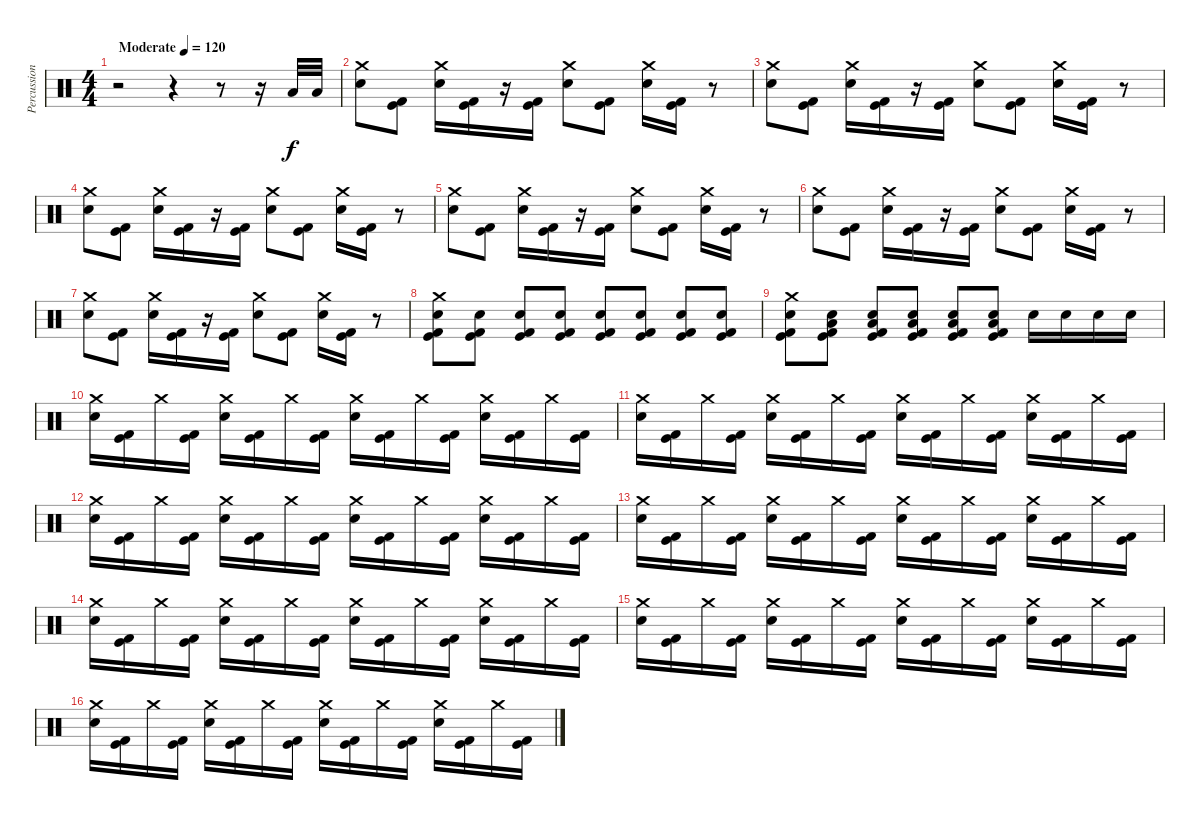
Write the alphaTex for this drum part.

\track ("Percussion" "Percussion") {instrument percussion}
\staff {score}
\articulation defaults
\ts (4 4)
\tempo (120 "Moderate")
\clef neutral
\ks c
r.2{dy f} r.4 r.8 r.16 "Low Tom (hit)".32 "Low Tom (hit)".32 |
("Crash medium (hit)" "Electric Snare (hit)").8 ("Kick (hit)" "Kick (hit) 2").8 ("Crash medium (hit)" "Electric Snare (hit)").16 ("Kick (hit)" "Kick (hit) 2").16 r.16 ("Kick (hit)" "Kick (hit) 2").16 ("Crash medium (hit)" "Electric Snare (hit)").8 ("Kick (hit)" "Kick (hit) 2").8 ("Crash medium (hit)" "Electric Snare (hit)").16 ("Kick (hit)" "Kick (hit) 2").16 r.8 |
("Crash medium (hit)" "Electric Snare (hit)").8 ("Kick (hit)" "Kick (hit) 2").8 ("Crash medium (hit)" "Electric Snare (hit)").16 ("Kick (hit)" "Kick (hit) 2").16 r.16 ("Kick (hit)" "Kick (hit) 2").16 ("Crash medium (hit)" "Electric Snare (hit)").8 ("Kick (hit)" "Kick (hit) 2").8 ("Crash medium (hit)" "Electric Snare (hit)").16 ("Kick (hit)" "Kick (hit) 2").16 r.8 |
("Crash medium (hit)" "Electric Snare (hit)").8 ("Kick (hit)" "Kick (hit) 2").8 ("Crash medium (hit)" "Electric Snare (hit)").16 ("Kick (hit)" "Kick (hit) 2").16 r.16 ("Kick (hit)" "Kick (hit) 2").16 ("Crash medium (hit)" "Electric Snare (hit)").8 ("Kick (hit)" "Kick (hit) 2").8 ("Crash medium (hit)" "Electric Snare (hit)").16 ("Kick (hit)" "Kick (hit) 2").16 r.8 |
("Crash medium (hit)" "Electric Snare (hit)").8 ("Kick (hit)" "Kick (hit) 2").8 ("Crash medium (hit)" "Electric Snare (hit)").16 ("Kick (hit)" "Kick (hit) 2").16 r.16 ("Kick (hit)" "Kick (hit) 2").16 ("Crash medium (hit)" "Electric Snare (hit)").8 ("Kick (hit)" "Kick (hit) 2").8 ("Crash medium (hit)" "Electric Snare (hit)").16 ("Kick (hit)" "Kick (hit) 2").16 r.8 |
("Crash medium (hit)" "Electric Snare (hit)").8 ("Kick (hit)" "Kick (hit) 2").8 ("Crash medium (hit)" "Electric Snare (hit)").16 ("Kick (hit)" "Kick (hit) 2").16 r.16 ("Kick (hit)" "Kick (hit) 2").16 ("Crash medium (hit)" "Electric Snare (hit)").8 ("Kick (hit)" "Kick (hit) 2").8 ("Crash medium (hit)" "Electric Snare (hit)").16 ("Kick (hit)" "Kick (hit) 2").16 r.8 |
("Crash medium (hit)" "Electric Snare (hit)").8 ("Kick (hit)" "Kick (hit) 2").8 ("Crash medium (hit)" "Electric Snare (hit)").16 ("Kick (hit)" "Kick (hit) 2").16 r.16 ("Kick (hit)" "Kick (hit) 2").16 ("Crash medium (hit)" "Electric Snare (hit)").8 ("Kick (hit)" "Kick (hit) 2").8 ("Crash medium (hit)" "Electric Snare (hit)").16 ("Kick (hit)" "Kick (hit) 2").16 r.8 |
("Crash medium (hit)" "Electric Snare (hit)" "Kick (hit)" "Kick (hit) 2").8 ("Electric Snare (hit)" "Kick (hit)" "Kick (hit) 2").8 ("Electric Snare (hit)" "Kick (hit)" "Kick (hit) 2").8 ("Electric Snare (hit)" "Kick (hit)" "Kick (hit) 2").8 ("Electric Snare (hit)" "Kick (hit)" "Kick (hit) 2").8 ("Electric Snare (hit)" "Kick (hit)" "Kick (hit) 2").8 ("Electric Snare (hit)" "Kick (hit)" "Kick (hit) 2").8 ("Electric Snare (hit)" "Kick (hit)" "Kick (hit) 2").8 |
("Crash medium (hit)" "Electric Snare (hit)" "Kick (hit)" "Kick (hit) 2").8 ("Electric Snare (hit)" "Low Tom (hit)" "Kick (hit)" "Kick (hit) 2").8 ("Electric Snare (hit)" "Low Tom (hit)" "Kick (hit)" "Kick (hit) 2").8 ("Electric Snare (hit)" "Low Tom (hit)" "Kick (hit)" "Kick (hit) 2").8 ("Electric Snare (hit)" "Low Tom (hit)" "Kick (hit)" "Kick (hit) 2").8 ("Electric Snare (hit)" "Low Tom (hit)" "Kick (hit)" "Kick (hit) 2").8 "Electric Snare (hit)".16 "Electric Snare (hit)".16 "Electric Snare (hit)".16 "Electric Snare (hit)".16 |
("Crash medium (hit)" "Electric Snare (hit)").16 ("Kick (hit)" "Kick (hit) 2").16 "Crash medium (hit)".16 ("Kick (hit)" "Kick (hit) 2").16 ("Crash medium (hit)" "Electric Snare (hit)").16 ("Kick (hit)" "Kick (hit) 2").16 "Crash medium (hit)".16 ("Kick (hit)" "Kick (hit) 2").16 ("Crash medium (hit)" "Electric Snare (hit)").16 ("Kick (hit)" "Kick (hit) 2").16 "Crash medium (hit)".16 ("Kick (hit)" "Kick (hit) 2").16 ("Crash medium (hit)" "Electric Snare (hit)").16 ("Kick (hit)" "Kick (hit) 2").16 "Crash medium (hit)".16 ("Kick (hit)" "Kick (hit) 2").16 |
("Crash medium (hit)" "Electric Snare (hit)").16 ("Kick (hit)" "Kick (hit) 2").16 "Crash medium (hit)".16 ("Kick (hit)" "Kick (hit) 2").16 ("Crash medium (hit)" "Electric Snare (hit)").16 ("Kick (hit)" "Kick (hit) 2").16 "Crash medium (hit)".16 ("Kick (hit)" "Kick (hit) 2").16 ("Crash medium (hit)" "Electric Snare (hit)").16 ("Kick (hit)" "Kick (hit) 2").16 "Crash medium (hit)".16 ("Kick (hit)" "Kick (hit) 2").16 ("Crash medium (hit)" "Electric Snare (hit)").16 ("Kick (hit)" "Kick (hit) 2").16 "Crash medium (hit)".16 ("Kick (hit)" "Kick (hit) 2").16 |
("Crash medium (hit)" "Electric Snare (hit)").16 ("Kick (hit)" "Kick (hit) 2").16 "Crash medium (hit)".16 ("Kick (hit)" "Kick (hit) 2").16 ("Crash medium (hit)" "Electric Snare (hit)").16 ("Kick (hit)" "Kick (hit) 2").16 "Crash medium (hit)".16 ("Kick (hit)" "Kick (hit) 2").16 ("Crash medium (hit)" "Electric Snare (hit)").16 ("Kick (hit)" "Kick (hit) 2").16 "Crash medium (hit)".16 ("Kick (hit)" "Kick (hit) 2").16 ("Crash medium (hit)" "Electric Snare (hit)").16 ("Kick (hit)" "Kick (hit) 2").16 "Crash medium (hit)".16 ("Kick (hit)" "Kick (hit) 2").16 |
("Crash medium (hit)" "Electric Snare (hit)").16 ("Kick (hit)" "Kick (hit) 2").16 "Crash medium (hit)".16 ("Kick (hit)" "Kick (hit) 2").16 ("Crash medium (hit)" "Electric Snare (hit)").16 ("Kick (hit)" "Kick (hit) 2").16 "Crash medium (hit)".16 ("Kick (hit)" "Kick (hit) 2").16 ("Crash medium (hit)" "Electric Snare (hit)").16 ("Kick (hit)" "Kick (hit) 2").16 "Crash medium (hit)".16 ("Kick (hit)" "Kick (hit) 2").16 ("Crash medium (hit)" "Electric Snare (hit)").16 ("Kick (hit)" "Kick (hit) 2").16 "Crash medium (hit)".16 ("Kick (hit)" "Kick (hit) 2").16 |
("Crash medium (hit)" "Electric Snare (hit)").16 ("Kick (hit)" "Kick (hit) 2").16 "Crash medium (hit)".16 ("Kick (hit)" "Kick (hit) 2").16 ("Crash medium (hit)" "Electric Snare (hit)").16 ("Kick (hit)" "Kick (hit) 2").16 "Crash medium (hit)".16 ("Kick (hit)" "Kick (hit) 2").16 ("Crash medium (hit)" "Electric Snare (hit)").16 ("Kick (hit)" "Kick (hit) 2").16 "Crash medium (hit)".16 ("Kick (hit)" "Kick (hit) 2").16 ("Crash medium (hit)" "Electric Snare (hit)").16 ("Kick (hit)" "Kick (hit) 2").16 "Crash medium (hit)".16 ("Kick (hit)" "Kick (hit) 2").16 |
("Crash medium (hit)" "Electric Snare (hit)").16 ("Kick (hit)" "Kick (hit) 2").16 "Crash medium (hit)".16 ("Kick (hit)" "Kick (hit) 2").16 ("Crash medium (hit)" "Electric Snare (hit)").16 ("Kick (hit)" "Kick (hit) 2").16 "Crash medium (hit)".16 ("Kick (hit)" "Kick (hit) 2").16 ("Crash medium (hit)" "Electric Snare (hit)").16 ("Kick (hit)" "Kick (hit) 2").16 "Crash medium (hit)".16 ("Kick (hit)" "Kick (hit) 2").16 ("Crash medium (hit)" "Electric Snare (hit)").16 ("Kick (hit)" "Kick (hit) 2").16 "Crash medium (hit)".16 ("Kick (hit)" "Kick (hit) 2").16 |
("Crash medium (hit)" "Electric Snare (hit)").16 ("Kick (hit)" "Kick (hit) 2").16 "Crash medium (hit)".16 ("Kick (hit)" "Kick (hit) 2").16 ("Crash medium (hit)" "Electric Snare (hit)").16 ("Kick (hit)" "Kick (hit) 2").16 "Crash medium (hit)".16 ("Kick (hit)" "Kick (hit) 2").16 ("Crash medium (hit)" "Electric Snare (hit)").16 ("Kick (hit)" "Kick (hit) 2").16 "Crash medium (hit)".16 ("Kick (hit)" "Kick (hit) 2").16 ("Crash medium (hit)" "Electric Snare (hit)").16 ("Kick (hit)" "Kick (hit) 2").16 "Crash medium (hit)".16 ("Kick (hit)" "Kick (hit) 2").16
